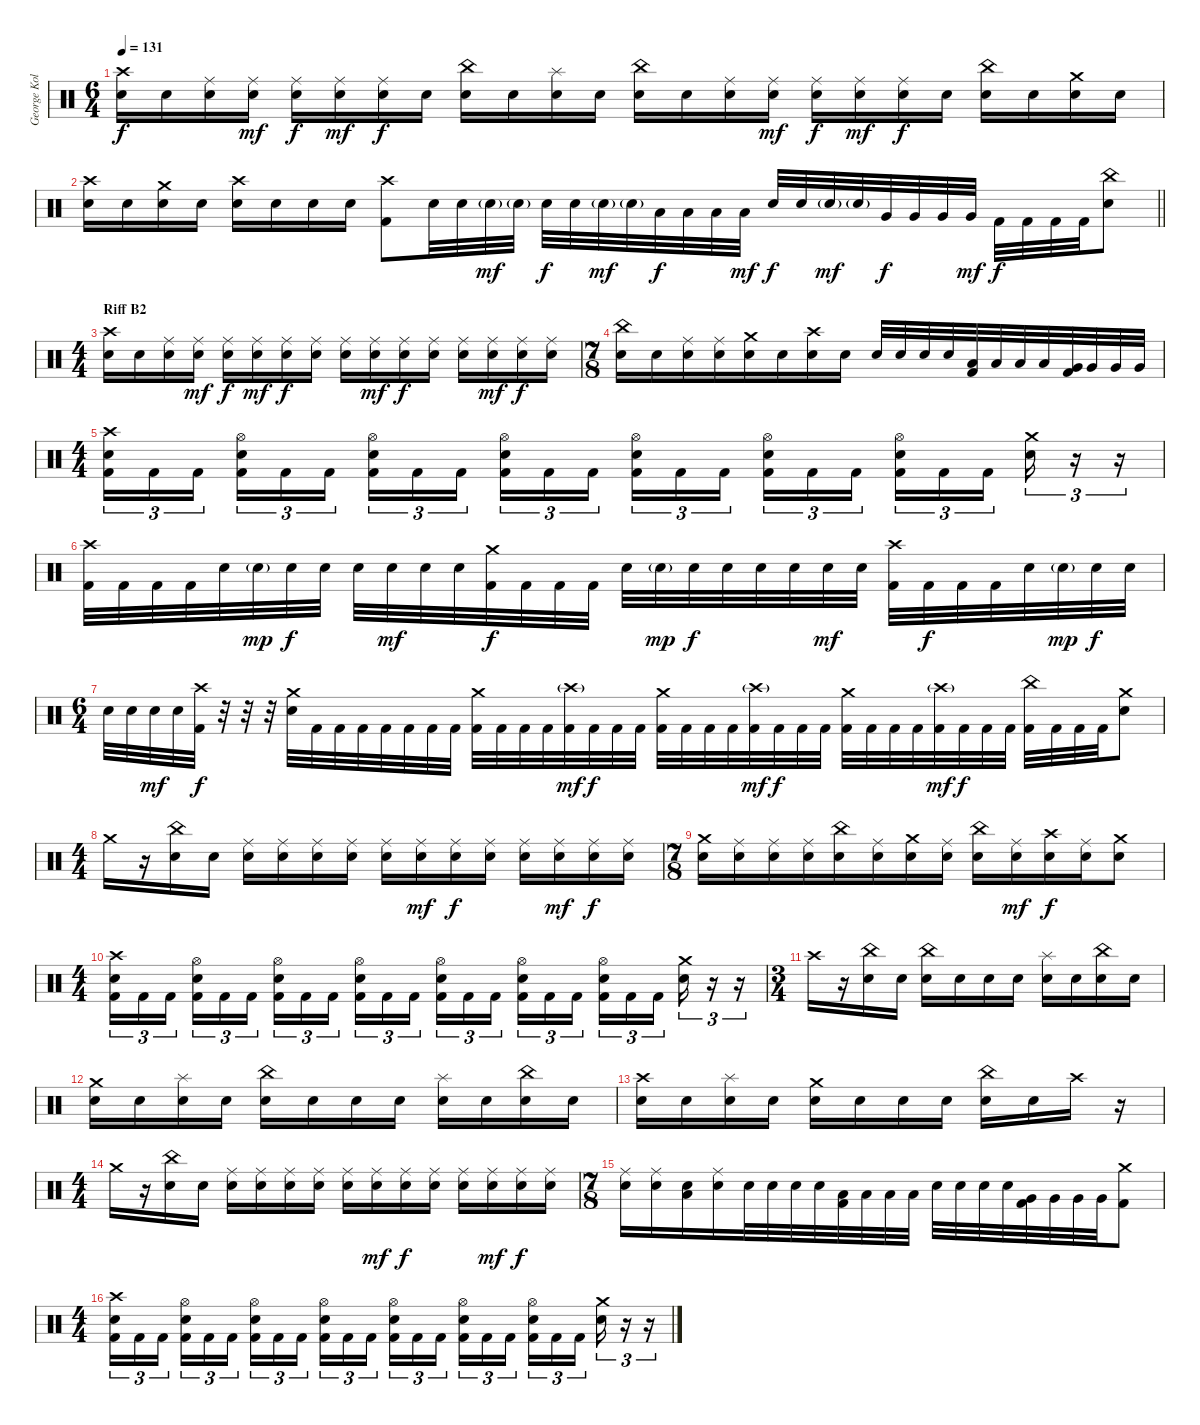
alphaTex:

\track ("George Kollias" "George Kol") {instrument percussion}
\staff {score}
\articulation defaults
\ts (6 4)
\tempo 131
\clef neutral
\ks c
("Crash high (hit)" "Electric Snare (hit)").16{dy f} "Electric Snare (hit)".16 ("Ride (middle)" "Electric Snare (hit)").16 ("Ride (middle)" "Electric Snare (hit)").16{dy mf} ("Ride (middle)" "Electric Snare (hit)").16{dy f} ("Ride (middle)" "Electric Snare (hit)").16{dy mf} ("Ride (middle)" "Electric Snare (hit)").16{dy f} "Electric Snare (hit)".16 ("China (hit)" "Electric Snare (hit)").16 "Electric Snare (hit)".16 ("Splash (hit)" "Electric Snare (hit)").16 "Electric Snare (hit)".16 ("China (hit)" "Electric Snare (hit)").16 "Electric Snare (hit)".16 ("Ride (middle)" "Electric Snare (hit)").16 ("Ride (middle)" "Electric Snare (hit)").16{dy mf} ("Ride (middle)" "Electric Snare (hit)").16{dy f} ("Ride (middle)" "Electric Snare (hit)").16{dy mf} ("Ride (middle)" "Electric Snare (hit)").16{dy f} "Electric Snare (hit)".16 ("China (hit)" "Electric Snare (hit)").16 "Electric Snare (hit)".16 ("Crash medium (hit)" "Electric Snare (hit)").16 "Electric Snare (hit)".16 |
\barLineRight lightlight
("Crash high (hit)" "Electric Snare (hit)").16 "Electric Snare (hit)".16 ("Crash medium (hit)" "Electric Snare (hit)").16 "Electric Snare (hit)".16 ("Crash high (hit)" "Electric Snare (hit)").16 "Electric Snare (hit)".16 "Electric Snare (hit)".16 "Electric Snare (hit)".16 ("Crash high (hit)" "Kick (hit) 2").8 "Electric Snare (hit)".32 "Electric Snare (hit)".32 "Electric Snare (hit)"{g}.32{dy mf} "Electric Snare (hit)"{g}.32 "Electric Snare (hit)".32{dy f} "Electric Snare (hit)".32 "Electric Snare (hit)"{g}.32{dy mf} "Electric Snare (hit)"{g}.32 "Low Tom (hit)".32{dy f} "Low Tom (hit)".32 "Low Tom (hit)".32 "Low Tom (hit)".32{dy mf} "Electric Snare (hit)".32{dy f} "Electric Snare (hit)".32 "Electric Snare (hit)"{g}.32{dy mf} "Electric Snare (hit)"{g}.32 "Very Low Tom (hit)".32{dy f} "Very Low Tom (hit)".32 "Very Low Tom (hit)".32 "Very Low Tom (hit)".32{dy mf} "Kick (hit) 2".32{dy f} "Kick (hit) 2".32 "Kick (hit) 2".32 "Kick (hit) 2".32 ("China (hit)" "Electric Snare (hit)").8 |
\ts (4 4)
\section ("" "Riff B2")
("Crash high (hit)" "Electric Snare (hit)").16 "Electric Snare (hit)".16 ("Ride (middle)" "Electric Snare (hit)").16 ("Ride (middle)" "Electric Snare (hit)").16{dy mf} ("Ride (middle)" "Electric Snare (hit)").16{dy f} ("Ride (middle)" "Electric Snare (hit)").16{dy mf} ("Ride (middle)" "Electric Snare (hit)").16{dy f} ("Ride (middle)" "Electric Snare (hit)").16 ("Ride (middle)" "Electric Snare (hit)").16 ("Ride (middle)" "Electric Snare (hit)").16{dy mf} ("Ride (middle)" "Electric Snare (hit)").16{dy f} ("Ride (middle)" "Electric Snare (hit)").16 ("Ride (middle)" "Electric Snare (hit)").16 ("Ride (middle)" "Electric Snare (hit)").16{dy mf} ("Ride (middle)" "Electric Snare (hit)").16{dy f} ("Ride (middle)" "Electric Snare (hit)").16 |
\ts (7 8)
("China (hit)" "Electric Snare (hit)").16 "Electric Snare (hit)".16 ("Ride (middle)" "Electric Snare (hit)").16 ("Ride (middle)" "Electric Snare (hit)").16 ("Crash medium (hit)" "Electric Snare (hit)").16 "Electric Snare (hit)".16 ("Crash high (hit)" "Electric Snare (hit)").16 "Electric Snare (hit)".16 "Electric Snare (hit)".32 "Electric Snare (hit)".32 "Electric Snare (hit)".32 "Electric Snare (hit)".32 ("Low Tom (hit)" "Kick (hit) 2").32 "Low Tom (hit)".32 "Low Tom (hit)".32 "Low Tom (hit)".32 ("Very Low Tom (hit)" "Kick (hit) 2").32 "Very Low Tom (hit)".32 "Very Low Tom (hit)".32 "Very Low Tom (hit)".32 |
\ts (4 4)
("Crash high (hit)" "Electric Snare (hit)" "Kick (hit) 2").16{tu (3 2)} "Kick (hit) 2".16{tu (3 2)} "Kick (hit) 2".16{tu (3 2) beam splitsecondary} ("Hi-Hat (open)" "Electric Snare (hit)" "Kick (hit) 2").16{tu (3 2)} "Kick (hit) 2".16{tu (3 2)} "Kick (hit) 2".16{tu (3 2)} ("Hi-Hat (open)" "Electric Snare (hit)" "Kick (hit) 2").16{tu (3 2)} "Kick (hit) 2".16{tu (3 2)} "Kick (hit) 2".16{tu (3 2) beam splitsecondary} ("Hi-Hat (open)" "Electric Snare (hit)" "Kick (hit) 2").16{tu (3 2)} "Kick (hit) 2".16{tu (3 2)} "Kick (hit) 2".16{tu (3 2)} ("Hi-Hat (open)" "Electric Snare (hit)" "Kick (hit) 2").16{tu (3 2)} "Kick (hit) 2".16{tu (3 2)} "Kick (hit) 2".16{tu (3 2) beam splitsecondary} ("Hi-Hat (open)" "Electric Snare (hit)" "Kick (hit) 2").16{tu (3 2)} "Kick (hit) 2".16{tu (3 2)} "Kick (hit) 2".16{tu (3 2)} ("Hi-Hat (open)" "Electric Snare (hit)" "Kick (hit) 2").16{tu (3 2)} "Kick (hit) 2".16{tu (3 2)} "Kick (hit) 2".16{tu (3 2) beam splitsecondary} ("Crash medium (hit)" "Electric Snare (hit)").16{tu (3 2)} r.16{tu (3 2)} r.16{tu (3 2)} |
("Crash high (hit)" "Kick (hit) 2").32 "Kick (hit) 2".32 "Kick (hit) 2".32 "Kick (hit) 2".32 "Electric Snare (hit)".32 "Electric Snare (hit)"{g}.32{dy mp} "Electric Snare (hit)".32{dy f} "Electric Snare (hit)".32 "Electric Snare (hit)".32 "Electric Snare (hit)".32{dy mf} "Electric Snare (hit)".32 "Electric Snare (hit)".32 ("Crash medium (hit)" "Kick (hit) 2").32{dy f} "Kick (hit) 2".32 "Kick (hit) 2".32 "Kick (hit) 2".32 "Electric Snare (hit)".32 "Electric Snare (hit)"{g}.32{dy mp} "Electric Snare (hit)".32{dy f} "Electric Snare (hit)".32 "Electric Snare (hit)".32 "Electric Snare (hit)".32 "Electric Snare (hit)".32{dy mf} "Electric Snare (hit)".32 ("Crash high (hit)" "Kick (hit) 2").32 "Kick (hit) 2".32{dy f} "Kick (hit) 2".32 "Kick (hit) 2".32 "Electric Snare (hit)".32 "Electric Snare (hit)"{g}.32{dy mp} "Electric Snare (hit)".32{dy f} "Electric Snare (hit)".32 |
\ts (6 4)
"Electric Snare (hit)".32 "Electric Snare (hit)".32 "Electric Snare (hit)".32{dy mf} "Electric Snare (hit)".32 ("Crash high (hit)" "Kick (hit) 2").32{dy f} r.32 r.32 r.32 ("Crash medium (hit)" "Electric Snare (hit)").32 "Kick (hit) 2".32 "Kick (hit) 2".32 "Kick (hit) 2".32 "Kick (hit) 2".32 "Kick (hit) 2".32 "Kick (hit) 2".32 "Kick (hit) 2".32 ("Crash medium (hit)" "Kick (hit) 2").32 "Kick (hit) 2".32 "Kick (hit) 2".32 "Kick (hit) 2".32 ("Crash high (hit)"{g} "Kick (hit) 2").32{dy mf} "Kick (hit) 2".32{dy f} "Kick (hit) 2".32 "Kick (hit) 2".32 ("Crash medium (hit)" "Kick (hit) 2").32 "Kick (hit) 2".32 "Kick (hit) 2".32 "Kick (hit) 2".32 ("Crash high (hit)"{g} "Kick (hit) 2").32{dy mf} "Kick (hit) 2".32{dy f} "Kick (hit) 2".32 "Kick (hit) 2".32 ("Crash medium (hit)" "Kick (hit) 2").32 "Kick (hit) 2".32 "Kick (hit) 2".32 "Kick (hit) 2".32 ("Crash high (hit)"{g} "Kick (hit) 2").32{dy mf} "Kick (hit) 2".32{dy f} "Kick (hit) 2".32 "Kick (hit) 2".32 ("China (hit)" "Kick (hit) 2").32 "Kick (hit) 2".32 "Kick (hit) 2".32 "Kick (hit) 2".32 ("Crash medium (hit)" "Electric Snare (hit)").8 |
\ts (4 4)
"Crash medium (hit)".16 r.16 ("China (hit)" "Electric Snare (hit)").16 "Electric Snare (hit)".16 ("Ride (middle)" "Electric Snare (hit)").16 ("Ride (middle)" "Electric Snare (hit)").16 ("Ride (middle)" "Electric Snare (hit)").16 ("Ride (middle)" "Electric Snare (hit)").16 ("Ride (middle)" "Electric Snare (hit)").16 ("Ride (middle)" "Electric Snare (hit)").16{dy mf} ("Ride (middle)" "Electric Snare (hit)").16{dy f} ("Ride (middle)" "Electric Snare (hit)").16 ("Ride (middle)" "Electric Snare (hit)").16 ("Ride (middle)" "Electric Snare (hit)").16{dy mf} ("Ride (middle)" "Electric Snare (hit)").16{dy f} ("Ride (middle)" "Electric Snare (hit)").16 |
\ts (7 8)
("Crash medium (hit)" "Electric Snare (hit)").16 ("Ride (middle)" "Electric Snare (hit)").16 ("Ride (middle)" "Electric Snare (hit)").16 ("Ride (middle)" "Electric Snare (hit)").16 ("China (hit)" "Electric Snare (hit)").16 ("Ride (middle)" "Electric Snare (hit)").16 ("Crash medium (hit)" "Electric Snare (hit)").16 ("Ride (middle)" "Electric Snare (hit)").16 ("China (hit)" "Electric Snare (hit)").16 ("Ride (middle)" "Electric Snare (hit)").16{dy mf} ("Crash high (hit)" "Electric Snare (hit)").16{dy f} ("Ride (middle)" "Electric Snare (hit)").16 ("Crash medium (hit)" "Electric Snare (hit)").8 |
\ts (4 4)
("Crash high (hit)" "Electric Snare (hit)" "Kick (hit) 2").16{tu (3 2)} "Kick (hit) 2".16{tu (3 2)} "Kick (hit) 2".16{tu (3 2) beam splitsecondary} ("Hi-Hat (open)" "Electric Snare (hit)" "Kick (hit) 2").16{tu (3 2)} "Kick (hit) 2".16{tu (3 2)} "Kick (hit) 2".16{tu (3 2)} ("Hi-Hat (open)" "Electric Snare (hit)" "Kick (hit) 2").16{tu (3 2)} "Kick (hit) 2".16{tu (3 2)} "Kick (hit) 2".16{tu (3 2) beam splitsecondary} ("Hi-Hat (open)" "Electric Snare (hit)" "Kick (hit) 2").16{tu (3 2)} "Kick (hit) 2".16{tu (3 2)} "Kick (hit) 2".16{tu (3 2)} ("Hi-Hat (open)" "Electric Snare (hit)" "Kick (hit) 2").16{tu (3 2)} "Kick (hit) 2".16{tu (3 2)} "Kick (hit) 2".16{tu (3 2) beam splitsecondary} ("Hi-Hat (open)" "Electric Snare (hit)" "Kick (hit) 2").16{tu (3 2)} "Kick (hit) 2".16{tu (3 2)} "Kick (hit) 2".16{tu (3 2)} ("Hi-Hat (open)" "Electric Snare (hit)" "Kick (hit) 2").16{tu (3 2)} "Kick (hit) 2".16{tu (3 2)} "Kick (hit) 2".16{tu (3 2) beam splitsecondary} ("Crash medium (hit)" "Electric Snare (hit)").16{tu (3 2)} r.16{tu (3 2)} r.16{tu (3 2)} |
\ts (3 4)
"Crash high (hit)".16 r.16 ("China (hit)" "Electric Snare (hit)").16 "Electric Snare (hit)".16 ("China (hit)" "Electric Snare (hit)").16 "Electric Snare (hit)".16 "Electric Snare (hit)".16 "Electric Snare (hit)".16 ("Splash (hit)" "Electric Snare (hit)").16 "Electric Snare (hit)".16 ("China (hit)" "Electric Snare (hit)").16 "Electric Snare (hit)".16 |
("Crash medium (hit)" "Electric Snare (hit)").16 "Electric Snare (hit)".16 ("Splash (hit)" "Electric Snare (hit)").16 "Electric Snare (hit)".16 ("China (hit)" "Electric Snare (hit)").16 "Electric Snare (hit)".16 "Electric Snare (hit)".16 "Electric Snare (hit)".16 ("Splash (hit)" "Electric Snare (hit)").16 "Electric Snare (hit)".16 ("China (hit)" "Electric Snare (hit)").16 "Electric Snare (hit)".16 |
("Crash high (hit)" "Electric Snare (hit)").16 "Electric Snare (hit)".16 ("Splash (hit)" "Electric Snare (hit)").16 "Electric Snare (hit)".16 ("Crash medium (hit)" "Electric Snare (hit)").16 "Electric Snare (hit)".16 "Electric Snare (hit)".16 "Electric Snare (hit)".16 ("China (hit)" "Electric Snare (hit)").16 "Electric Snare (hit)".16 "Crash high (hit)".16 r.16 |
\ts (4 4)
"Crash medium (hit)".16 r.16 ("China (hit)" "Electric Snare (hit)").16 "Electric Snare (hit)".16 ("Ride (middle)" "Electric Snare (hit)").16 ("Ride (middle)" "Electric Snare (hit)").16 ("Ride (middle)" "Electric Snare (hit)").16 ("Ride (middle)" "Electric Snare (hit)").16 ("Ride (middle)" "Electric Snare (hit)").16 ("Ride (middle)" "Electric Snare (hit)").16{dy mf} ("Ride (middle)" "Electric Snare (hit)").16{dy f} ("Ride (middle)" "Electric Snare (hit)").16 ("Ride (middle)" "Electric Snare (hit)").16 ("Ride (middle)" "Electric Snare (hit)").16{dy mf} ("Ride (middle)" "Electric Snare (hit)").16{dy f} ("Ride (middle)" "Electric Snare (hit)").16 |
\ts (7 8)
("Ride (middle)" "Electric Snare (hit)").16 ("Ride (middle)" "Electric Snare (hit)").16 ("Low Floor Tom (hit)" "Electric Snare (hit)").16 ("Ride (middle)" "Electric Snare (hit)").16 "Electric Snare (hit)".32 "Electric Snare (hit)".32 "Electric Snare (hit)".32 "Electric Snare (hit)".32 ("Low Tom (hit)" "Kick (hit) 2").32 "Low Tom (hit)".32 "Low Tom (hit)".32 "Low Tom (hit)".32 "Electric Snare (hit)".32 "Electric Snare (hit)".32 "Electric Snare (hit)".32 "Electric Snare (hit)".32 ("Very Low Tom (hit)" "Kick (hit) 2").32 "Very Low Tom (hit)".32 "Very Low Tom (hit)".32 "Very Low Tom (hit)".32 ("Crash medium (hit)" "Kick (hit) 2").8 |
\ts (4 4)
("Crash high (hit)" "Electric Snare (hit)" "Kick (hit) 2").16{tu (3 2)} "Kick (hit) 2".16{tu (3 2)} "Kick (hit) 2".16{tu (3 2) beam splitsecondary} ("Hi-Hat (open)" "Electric Snare (hit)" "Kick (hit) 2").16{tu (3 2)} "Kick (hit) 2".16{tu (3 2)} "Kick (hit) 2".16{tu (3 2)} ("Hi-Hat (open)" "Electric Snare (hit)" "Kick (hit) 2").16{tu (3 2)} "Kick (hit) 2".16{tu (3 2)} "Kick (hit) 2".16{tu (3 2) beam splitsecondary} ("Hi-Hat (open)" "Electric Snare (hit)" "Kick (hit) 2").16{tu (3 2)} "Kick (hit) 2".16{tu (3 2)} "Kick (hit) 2".16{tu (3 2)} ("Hi-Hat (open)" "Electric Snare (hit)" "Kick (hit) 2").16{tu (3 2)} "Kick (hit) 2".16{tu (3 2)} "Kick (hit) 2".16{tu (3 2) beam splitsecondary} ("Hi-Hat (open)" "Electric Snare (hit)" "Kick (hit) 2").16{tu (3 2)} "Kick (hit) 2".16{tu (3 2)} "Kick (hit) 2".16{tu (3 2)} ("Hi-Hat (open)" "Electric Snare (hit)" "Kick (hit) 2").16{tu (3 2)} "Kick (hit) 2".16{tu (3 2)} "Kick (hit) 2".16{tu (3 2) beam splitsecondary} ("Crash medium (hit)" "Electric Snare (hit)").16{tu (3 2)} r.16{tu (3 2)} r.16{tu (3 2)}
